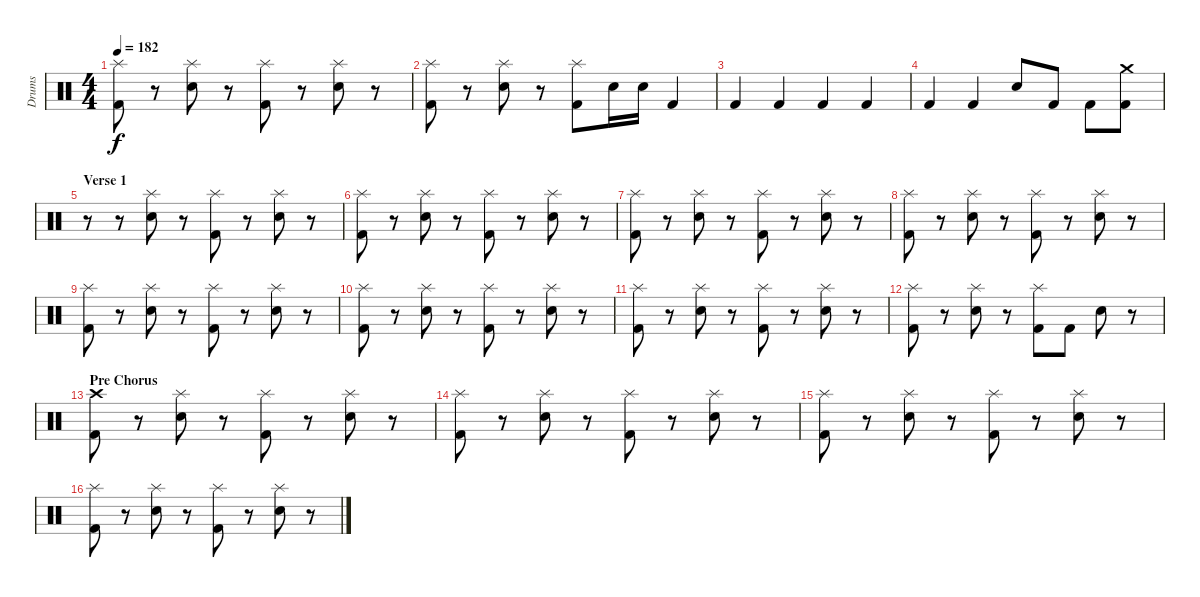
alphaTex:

\track ("Drums" "Drums") {instrument percussion}
\staff {score}
\articulation defaults
\ts (4 4)
\tempo 182
\clef neutral
\ks c
("Splash (hit)" "Kick (hit) 2").8{dy f} r.8 ("Splash (hit)" "Snare (hit) 2").8 r.8 ("Splash (hit)" "Kick (hit) 2").8 r.8 ("Splash (hit)" "Snare (hit) 2").8 r.8 |
("Splash (hit)" "Kick (hit) 2").8 r.8 ("Splash (hit)" "Snare (hit) 2").8 r.8 ("Splash (hit)" "Kick (hit) 2").8 "Snare (hit) 2".16 "Snare (hit) 2".16 "Kick (hit) 2".4 |
"Kick (hit) 2".4 "Kick (hit) 2".4 "Kick (hit) 2".4 "Kick (hit) 2".4 |
"Kick (hit) 2".4 "Kick (hit) 2".4 "Snare (hit) 2".8 "Kick (hit) 2".8 "Kick (hit) 2".8 ("Crash medium (hit)" "Kick (hit) 2").8 |
\section ("" "Verse 1")
r.8 r.8 ("Splash (hit)" "Snare (hit) 2").8 r.8 ("Splash (hit)" "Kick (hit) 2").8 r.8 ("Splash (hit)" "Snare (hit) 2").8 r.8 |
("Splash (hit)" "Kick (hit) 2").8 r.8 ("Splash (hit)" "Snare (hit) 2").8 r.8 ("Splash (hit)" "Kick (hit) 2").8 r.8 ("Splash (hit)" "Snare (hit) 2").8 r.8 |
("Splash (hit)" "Kick (hit) 2").8 r.8 ("Splash (hit)" "Snare (hit) 2").8 r.8 ("Splash (hit)" "Kick (hit) 2").8 r.8 ("Splash (hit)" "Snare (hit) 2").8 r.8 |
("Splash (hit)" "Kick (hit) 2").8 r.8 ("Splash (hit)" "Snare (hit) 2").8 r.8 ("Splash (hit)" "Kick (hit) 2").8 r.8 ("Splash (hit)" "Snare (hit) 2").8 r.8 |
("Splash (hit)" "Kick (hit) 2").8 r.8 ("Splash (hit)" "Snare (hit) 2").8 r.8 ("Splash (hit)" "Kick (hit) 2").8 r.8 ("Splash (hit)" "Snare (hit) 2").8 r.8 |
("Splash (hit)" "Kick (hit) 2").8 r.8 ("Splash (hit)" "Snare (hit) 2").8 r.8 ("Splash (hit)" "Kick (hit) 2").8 r.8 ("Splash (hit)" "Snare (hit) 2").8 r.8 |
("Splash (hit)" "Kick (hit) 2").8 r.8 ("Splash (hit)" "Snare (hit) 2").8 r.8 ("Splash (hit)" "Kick (hit) 2").8 r.8 ("Splash (hit)" "Snare (hit) 2").8 r.8 |
("Splash (hit)" "Kick (hit) 2").8 r.8 ("Splash (hit)" "Snare (hit) 2").8 r.8 ("Splash (hit)" "Kick (hit) 2").8 "Kick (hit) 2".8 "Snare (hit) 2".8 r.8 |
\section ("" "Pre Chorus")
("Crash high (hit)" "Kick (hit) 2").8 r.8 ("Splash (hit)" "Snare (hit) 2").8 r.8 ("Splash (hit)" "Kick (hit) 2").8 r.8 ("Splash (hit)" "Snare (hit) 2").8 r.8 |
("Splash (hit)" "Kick (hit) 2").8 r.8 ("Splash (hit)" "Snare (hit) 2").8 r.8 ("Splash (hit)" "Kick (hit) 2").8 r.8 ("Splash (hit)" "Snare (hit) 2").8 r.8 |
("Splash (hit)" "Kick (hit) 2").8 r.8 ("Splash (hit)" "Snare (hit) 2").8 r.8 ("Splash (hit)" "Kick (hit) 2").8 r.8 ("Splash (hit)" "Snare (hit) 2").8 r.8 |
("Splash (hit)" "Kick (hit) 2").8 r.8 ("Splash (hit)" "Snare (hit) 2").8 r.8 ("Splash (hit)" "Kick (hit) 2").8 r.8 ("Splash (hit)" "Snare (hit) 2").8 r.8
